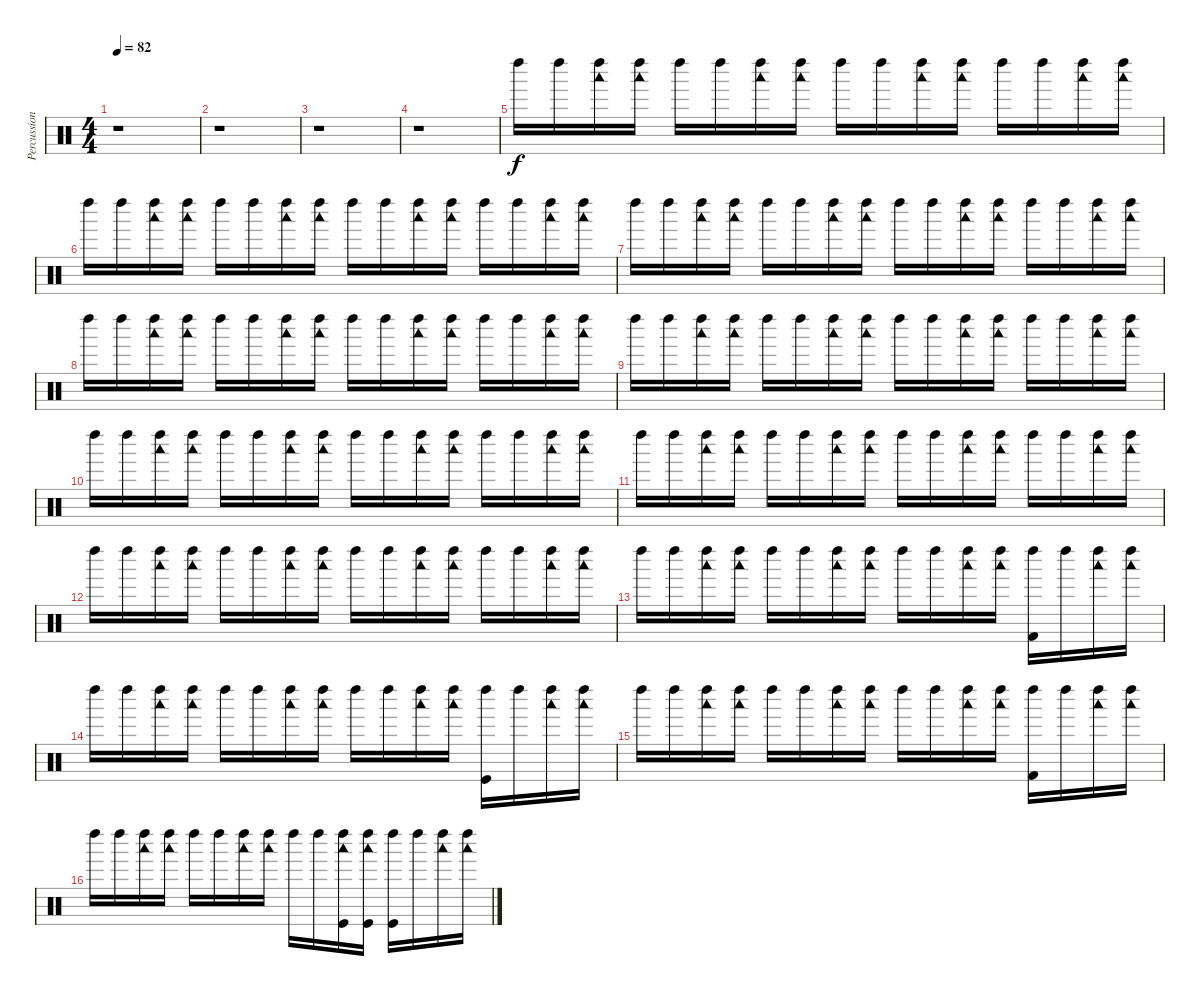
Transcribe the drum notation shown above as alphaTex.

\track ("Percussion" "Percussion") {instrument percussion}
\staff {score}
\articulation defaults
\ts (4 4)
\tempo 82
\clef neutral
\ks c
r.1{dy f} |
r.1 |
r.1 |
r.1 |
"Left Maraca (hit)".16 "Left Maraca (hit)".16 ("Left Maraca (hit)" "Woodblock low (hit)").16 ("Left Maraca (hit)" "Woodblock low (hit)").16 "Left Maraca (hit)".16 "Left Maraca (hit)".16 ("Left Maraca (hit)" "Woodblock low (hit)").16 ("Left Maraca (hit)" "Woodblock low (hit)").16 "Left Maraca (hit)".16 "Left Maraca (hit)".16 ("Left Maraca (hit)" "Woodblock low (hit)").16 ("Left Maraca (hit)" "Woodblock low (hit)").16 "Left Maraca (hit)".16 "Left Maraca (hit)".16 ("Left Maraca (hit)" "Woodblock low (hit)").16 ("Left Maraca (hit)" "Woodblock low (hit)").16 |
"Left Maraca (hit)".16 "Left Maraca (hit)".16 ("Left Maraca (hit)" "Woodblock low (hit)").16 ("Left Maraca (hit)" "Woodblock low (hit)").16 "Left Maraca (hit)".16 "Left Maraca (hit)".16 ("Left Maraca (hit)" "Woodblock low (hit)").16 ("Left Maraca (hit)" "Woodblock low (hit)").16 "Left Maraca (hit)".16 "Left Maraca (hit)".16 ("Left Maraca (hit)" "Woodblock low (hit)").16 ("Left Maraca (hit)" "Woodblock low (hit)").16 "Left Maraca (hit)".16 "Left Maraca (hit)".16 ("Left Maraca (hit)" "Woodblock low (hit)").16 ("Left Maraca (hit)" "Woodblock low (hit)").16 |
"Left Maraca (hit)".16 "Left Maraca (hit)".16 ("Left Maraca (hit)" "Woodblock low (hit)").16 ("Left Maraca (hit)" "Woodblock low (hit)").16 "Left Maraca (hit)".16 "Left Maraca (hit)".16 ("Left Maraca (hit)" "Woodblock low (hit)").16 ("Left Maraca (hit)" "Woodblock low (hit)").16 "Left Maraca (hit)".16 "Left Maraca (hit)".16 ("Left Maraca (hit)" "Woodblock low (hit)").16 ("Left Maraca (hit)" "Woodblock low (hit)").16 "Left Maraca (hit)".16 "Left Maraca (hit)".16 ("Left Maraca (hit)" "Woodblock low (hit)").16 ("Left Maraca (hit)" "Woodblock low (hit)").16 |
"Left Maraca (hit)".16 "Left Maraca (hit)".16 ("Left Maraca (hit)" "Woodblock low (hit)").16 ("Left Maraca (hit)" "Woodblock low (hit)").16 "Left Maraca (hit)".16 "Left Maraca (hit)".16 ("Left Maraca (hit)" "Woodblock low (hit)").16 ("Left Maraca (hit)" "Woodblock low (hit)").16 "Left Maraca (hit)".16 "Left Maraca (hit)".16 ("Left Maraca (hit)" "Woodblock low (hit)").16 ("Left Maraca (hit)" "Woodblock low (hit)").16 "Left Maraca (hit)".16 "Left Maraca (hit)".16 ("Left Maraca (hit)" "Woodblock low (hit)").16 ("Left Maraca (hit)" "Woodblock low (hit)").16 |
"Left Maraca (hit)".16 "Left Maraca (hit)".16 ("Left Maraca (hit)" "Woodblock low (hit)").16 ("Left Maraca (hit)" "Woodblock low (hit)").16 "Left Maraca (hit)".16 "Left Maraca (hit)".16 ("Left Maraca (hit)" "Woodblock low (hit)").16 ("Left Maraca (hit)" "Woodblock low (hit)").16 "Left Maraca (hit)".16 "Left Maraca (hit)".16 ("Left Maraca (hit)" "Woodblock low (hit)").16 ("Left Maraca (hit)" "Woodblock low (hit)").16 "Left Maraca (hit)".16 "Left Maraca (hit)".16 ("Left Maraca (hit)" "Woodblock low (hit)").16 ("Left Maraca (hit)" "Woodblock low (hit)").16 |
"Left Maraca (hit)".16 "Left Maraca (hit)".16 ("Left Maraca (hit)" "Woodblock low (hit)").16 ("Left Maraca (hit)" "Woodblock low (hit)").16 "Left Maraca (hit)".16 "Left Maraca (hit)".16 ("Left Maraca (hit)" "Woodblock low (hit)").16 ("Left Maraca (hit)" "Woodblock low (hit)").16 "Left Maraca (hit)".16 "Left Maraca (hit)".16 ("Left Maraca (hit)" "Woodblock low (hit)").16 ("Left Maraca (hit)" "Woodblock low (hit)").16 "Left Maraca (hit)".16 "Left Maraca (hit)".16 ("Left Maraca (hit)" "Woodblock low (hit)").16 ("Left Maraca (hit)" "Woodblock low (hit)").16 |
"Left Maraca (hit)".16 "Left Maraca (hit)".16 ("Left Maraca (hit)" "Woodblock low (hit)").16 ("Left Maraca (hit)" "Woodblock low (hit)").16 "Left Maraca (hit)".16 "Left Maraca (hit)".16 ("Left Maraca (hit)" "Woodblock low (hit)").16 ("Left Maraca (hit)" "Woodblock low (hit)").16 "Left Maraca (hit)".16 "Left Maraca (hit)".16 ("Left Maraca (hit)" "Woodblock low (hit)").16 ("Left Maraca (hit)" "Woodblock low (hit)").16 "Left Maraca (hit)".16 "Left Maraca (hit)".16 ("Left Maraca (hit)" "Woodblock low (hit)").16 ("Left Maraca (hit)" "Woodblock low (hit)").16 |
"Left Maraca (hit)".16 "Left Maraca (hit)".16 ("Left Maraca (hit)" "Woodblock low (hit)").16 ("Left Maraca (hit)" "Woodblock low (hit)").16 "Left Maraca (hit)".16 "Left Maraca (hit)".16 ("Left Maraca (hit)" "Woodblock low (hit)").16 ("Left Maraca (hit)" "Woodblock low (hit)").16 "Left Maraca (hit)".16 "Left Maraca (hit)".16 ("Left Maraca (hit)" "Woodblock low (hit)").16 ("Left Maraca (hit)" "Woodblock low (hit)").16 "Left Maraca (hit)".16 "Left Maraca (hit)".16 ("Left Maraca (hit)" "Woodblock low (hit)").16 ("Left Maraca (hit)" "Woodblock low (hit)").16 |
"Left Maraca (hit)".16 "Left Maraca (hit)".16 ("Left Maraca (hit)" "Woodblock low (hit)").16 ("Left Maraca (hit)" "Woodblock low (hit)").16 "Left Maraca (hit)".16 "Left Maraca (hit)".16 ("Left Maraca (hit)" "Woodblock low (hit)").16 ("Left Maraca (hit)" "Woodblock low (hit)").16 "Left Maraca (hit)".16 "Left Maraca (hit)".16 ("Left Maraca (hit)" "Woodblock low (hit)").16 ("Left Maraca (hit)" "Woodblock low (hit)").16 ("Left Maraca (hit)" "Kick (hit) 2").16 "Left Maraca (hit)".16 ("Left Maraca (hit)" "Woodblock low (hit)").16 ("Left Maraca (hit)" "Woodblock low (hit)").16 |
"Left Maraca (hit)".16 "Left Maraca (hit)".16 ("Left Maraca (hit)" "Woodblock low (hit)").16 ("Left Maraca (hit)" "Woodblock low (hit)").16 "Left Maraca (hit)".16 "Left Maraca (hit)".16 ("Left Maraca (hit)" "Woodblock low (hit)").16 ("Left Maraca (hit)" "Woodblock low (hit)").16 "Left Maraca (hit)".16 "Left Maraca (hit)".16 ("Left Maraca (hit)" "Woodblock low (hit)").16 ("Left Maraca (hit)" "Woodblock low (hit)").16 ("Left Maraca (hit)" "Kick (hit)").16 "Left Maraca (hit)".16 ("Left Maraca (hit)" "Woodblock low (hit)").16 ("Left Maraca (hit)" "Woodblock low (hit)").16 |
"Left Maraca (hit)".16 "Left Maraca (hit)".16 ("Left Maraca (hit)" "Woodblock low (hit)").16 ("Left Maraca (hit)" "Woodblock low (hit)").16 "Left Maraca (hit)".16 "Left Maraca (hit)".16 ("Left Maraca (hit)" "Woodblock low (hit)").16 ("Left Maraca (hit)" "Woodblock low (hit)").16 "Left Maraca (hit)".16 "Left Maraca (hit)".16 ("Left Maraca (hit)" "Woodblock low (hit)").16 ("Left Maraca (hit)" "Woodblock low (hit)").16 ("Left Maraca (hit)" "Kick (hit) 2").16 "Left Maraca (hit)".16 ("Left Maraca (hit)" "Woodblock low (hit)").16 ("Left Maraca (hit)" "Woodblock low (hit)").16 |
"Left Maraca (hit)".16 "Left Maraca (hit)".16 ("Left Maraca (hit)" "Woodblock low (hit)").16 ("Left Maraca (hit)" "Woodblock low (hit)").16 "Left Maraca (hit)".16 "Left Maraca (hit)".16 ("Left Maraca (hit)" "Woodblock low (hit)").16 ("Left Maraca (hit)" "Woodblock low (hit)").16 "Left Maraca (hit)".16 "Left Maraca (hit)".16 ("Left Maraca (hit)" "Woodblock low (hit)" "Kick (hit)").16 ("Left Maraca (hit)" "Woodblock low (hit)" "Kick (hit)").16 ("Left Maraca (hit)" "Kick (hit)").16 "Left Maraca (hit)".16 ("Left Maraca (hit)" "Woodblock low (hit)").16 ("Left Maraca (hit)" "Woodblock low (hit)").16
